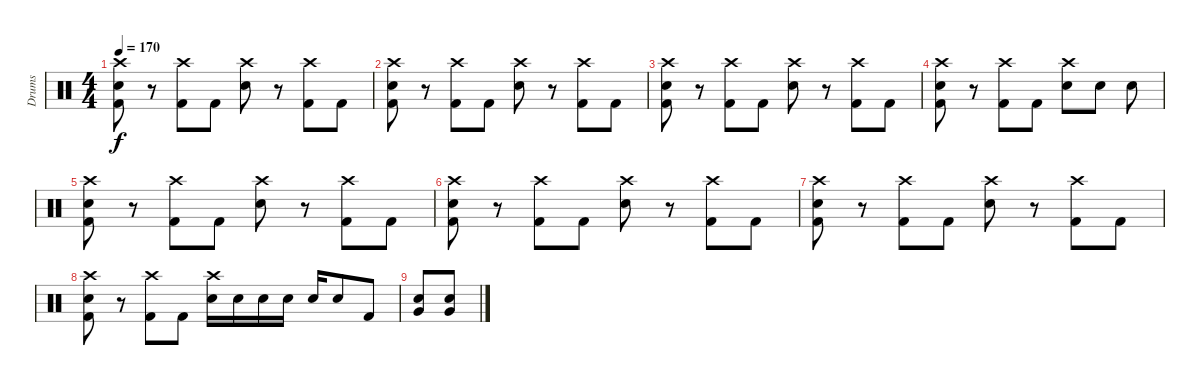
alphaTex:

\track ("Drums" "Drums") {instrument percussion}
\staff {score}
\articulation defaults
\ts (4 4)
\tempo 170
\clef neutral
\ks c
("Crash high (hit)" "Snare (hit) 2" "Kick (hit) 2").8{dy f} r.8 ("Crash high (hit)" "Kick (hit) 2").8 "Kick (hit) 2".8 ("Crash high (hit)" "Snare (hit) 2").8 r.8 ("Crash high (hit)" "Kick (hit) 2").8 "Kick (hit) 2".8 |
("Crash high (hit)" "Snare (hit) 2" "Kick (hit) 2").8 r.8 ("Crash high (hit)" "Kick (hit) 2").8 "Kick (hit) 2".8 ("Crash high (hit)" "Snare (hit) 2").8 r.8 ("Crash high (hit)" "Kick (hit) 2").8 "Kick (hit) 2".8 |
("Crash high (hit)" "Snare (hit) 2" "Kick (hit) 2").8 r.8 ("Crash high (hit)" "Kick (hit) 2").8 "Kick (hit) 2".8 ("Crash high (hit)" "Snare (hit) 2").8 r.8 ("Crash high (hit)" "Kick (hit) 2").8 "Kick (hit) 2".8 |
("Crash high (hit)" "Snare (hit) 2" "Kick (hit) 2").8 r.8 ("Crash high (hit)" "Kick (hit) 2").8 "Kick (hit) 2".8 ("Crash high (hit)" "Snare (hit) 2").8 "Snare (hit) 2".8 "Snare (hit) 2".8 |
("Crash high (hit)" "Snare (hit) 2" "Kick (hit) 2").8 r.8 ("Crash high (hit)" "Kick (hit) 2").8 "Kick (hit) 2".8 ("Crash high (hit)" "Snare (hit) 2").8 r.8 ("Crash high (hit)" "Kick (hit) 2").8 "Kick (hit) 2".8 |
("Crash high (hit)" "Snare (hit) 2" "Kick (hit) 2").8 r.8 ("Crash high (hit)" "Kick (hit) 2").8 "Kick (hit) 2".8 ("Crash high (hit)" "Snare (hit) 2").8 r.8 ("Crash high (hit)" "Kick (hit) 2").8 "Kick (hit) 2".8 |
("Crash high (hit)" "Snare (hit) 2" "Kick (hit) 2").8 r.8 ("Crash high (hit)" "Kick (hit) 2").8 "Kick (hit) 2".8 ("Crash high (hit)" "Snare (hit) 2").8 r.8 ("Crash high (hit)" "Kick (hit) 2").8 "Kick (hit) 2".8 |
("Crash high (hit)" "Snare (hit) 2" "Kick (hit) 2").8 r.8 ("Crash high (hit)" "Kick (hit) 2").8 "Kick (hit) 2".8 ("Crash high (hit)" "Snare (hit) 2").16 "Snare (hit) 2".16 "Snare (hit) 2".16 "Snare (hit) 2".16 "Snare (hit) 2".16 "Snare (hit) 2".8 "Kick (hit) 2".8 |
("Very Low Tom (hit)" "Snare (hit) 2").8 ("Very Low Tom (hit)" "Snare (hit) 2").8
